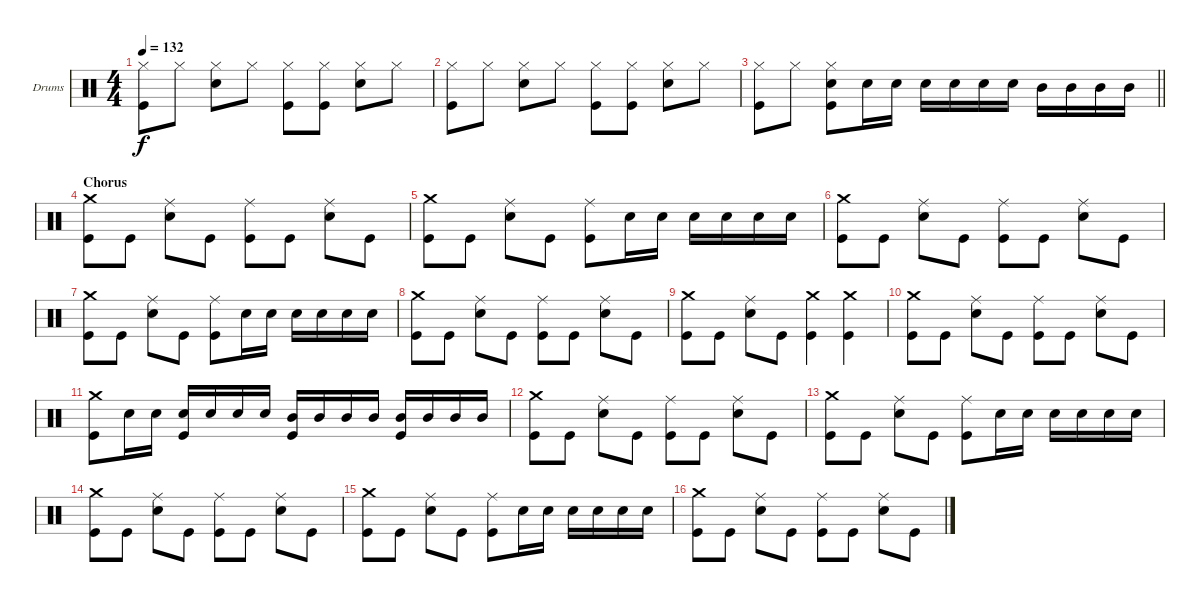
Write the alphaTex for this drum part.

\bracketExtendMode groupsimilarinstruments
\firstSystemTrackNameOrientation horizontal
\otherSystemsTrackNameOrientation horizontal
\track ("Drums" "Drums") {instrument percussion}
\staff {score}
\articulation defaults
\ts (4 4)
\tempo 132
\clef neutral
\ks c
("Hi-Hat (closed)" "Kick (hit)").8{dy f} "Hi-Hat (closed)".8 ("Hi-Hat (closed)" "Snare (hit) 2").8 "Hi-Hat (closed)".8 ("Hi-Hat (closed)" "Kick (hit)").8 ("Hi-Hat (closed)" "Kick (hit)").8 ("Hi-Hat (closed)" "Snare (hit) 2").8 "Hi-Hat (closed)".8 |
("Hi-Hat (closed)" "Kick (hit)").8 "Hi-Hat (closed)".8 ("Hi-Hat (closed)" "Snare (hit) 2").8 "Hi-Hat (closed)".8 ("Hi-Hat (closed)" "Kick (hit)").8 ("Hi-Hat (closed)" "Kick (hit)").8 ("Hi-Hat (closed)" "Snare (hit) 2").8 "Hi-Hat (closed)".8 |
\barLineRight lightlight
("Hi-Hat (closed)" "Kick (hit)").8 "Hi-Hat (closed)".8 ("Hi-Hat (closed)" "Snare (hit) 2" "Kick (hit)").8 "Snare (hit) 2".16 "Snare (hit) 2".16 "Snare (hit) 2".16 "Snare (hit) 2".16 "Snare (hit) 2".16 "Snare (hit) 2".16 "Mid Tom (hit)".16 "Mid Tom (hit)".16 "Mid Tom (hit)".16 "Mid Tom (hit)".16 |
\section ("" "Chorus")
("Crash medium (hit)" "Kick (hit)").8 "Kick (hit)".8 ("Ride (middle)" "Snare (hit) 2").8 "Kick (hit)".8 ("Ride (middle)" "Kick (hit)").8 "Kick (hit)".8 ("Ride (middle)" "Snare (hit) 2").8 "Kick (hit)".8 |
("Crash medium (hit)" "Kick (hit)").8 "Kick (hit)".8 ("Ride (middle)" "Snare (hit) 2").8 "Kick (hit)".8 ("Ride (middle)" "Kick (hit)").8 "Snare (hit) 2".16 "Snare (hit) 2".16 "Snare (hit) 2".16 "Snare (hit) 2".16 "Snare (hit) 2".16 "Snare (hit) 2".16 |
("Crash medium (hit)" "Kick (hit)").8 "Kick (hit)".8 ("Ride (middle)" "Snare (hit) 2").8 "Kick (hit)".8 ("Ride (middle)" "Kick (hit)").8 "Kick (hit)".8 ("Ride (middle)" "Snare (hit) 2").8 "Kick (hit)".8 |
("Crash medium (hit)" "Kick (hit)").8 "Kick (hit)".8 ("Ride (middle)" "Snare (hit) 2").8 "Kick (hit)".8 ("Ride (middle)" "Kick (hit)").8 "Snare (hit) 2".16 "Snare (hit) 2".16 "Snare (hit) 2".16 "Snare (hit) 2".16 "Snare (hit) 2".16 "Snare (hit) 2".16 |
("Crash medium (hit)" "Kick (hit)").8 "Kick (hit)".8 ("Ride (middle)" "Snare (hit) 2").8 "Kick (hit)".8 ("Ride (middle)" "Kick (hit)").8 "Kick (hit)".8 ("Ride (middle)" "Snare (hit) 2").8 "Kick (hit)".8 |
("Crash medium (hit)" "Kick (hit)").8 "Kick (hit)".8 ("Ride (middle)" "Snare (hit) 2").8 "Kick (hit)".8 ("Crash medium (hit)" "Kick (hit)").4 ("Crash medium (hit)" "Kick (hit)").4 |
("Crash medium (hit)" "Kick (hit)").8 "Kick (hit)".8 ("Ride (middle)" "Snare (hit) 2").8 "Kick (hit)".8 ("Ride (middle)" "Kick (hit)").8 "Kick (hit)".8 ("Ride (middle)" "Snare (hit) 2").8 "Kick (hit)".8 |
("Crash medium (hit)" "Kick (hit)").8 "Snare (hit) 2".16 "Snare (hit) 2".16 ("Snare (hit) 2" "Kick (hit)").16 "Snare (hit) 2".16 "Snare (hit) 2".16 "Snare (hit) 2".16 ("Mid Tom (hit)" "Kick (hit)").16 "Mid Tom (hit)".16 "Mid Tom (hit)".16 "Mid Tom (hit)".16 ("Mid Tom (hit)" "Kick (hit)").16 "Mid Tom (hit)".16 "Mid Tom (hit)".16 "Mid Tom (hit)".16 |
("Crash medium (hit)" "Kick (hit)").8 "Kick (hit)".8 ("Ride (middle)" "Snare (hit) 2").8 "Kick (hit)".8 ("Ride (middle)" "Kick (hit)").8 "Kick (hit)".8 ("Ride (middle)" "Snare (hit) 2").8 "Kick (hit)".8 |
("Crash medium (hit)" "Kick (hit)").8 "Kick (hit)".8 ("Ride (middle)" "Snare (hit) 2").8 "Kick (hit)".8 ("Ride (middle)" "Kick (hit)").8 "Snare (hit) 2".16 "Snare (hit) 2".16 "Snare (hit) 2".16 "Snare (hit) 2".16 "Snare (hit) 2".16 "Snare (hit) 2".16 |
("Crash medium (hit)" "Kick (hit)").8 "Kick (hit)".8 ("Ride (middle)" "Snare (hit) 2").8 "Kick (hit)".8 ("Ride (middle)" "Kick (hit)").8 "Kick (hit)".8 ("Ride (middle)" "Snare (hit) 2").8 "Kick (hit)".8 |
("Crash medium (hit)" "Kick (hit)").8 "Kick (hit)".8 ("Ride (middle)" "Snare (hit) 2").8 "Kick (hit)".8 ("Ride (middle)" "Kick (hit)").8 "Snare (hit) 2".16 "Snare (hit) 2".16 "Snare (hit) 2".16 "Snare (hit) 2".16 "Snare (hit) 2".16 "Snare (hit) 2".16 |
("Crash medium (hit)" "Kick (hit)").8 "Kick (hit)".8 ("Ride (middle)" "Snare (hit) 2").8 "Kick (hit)".8 ("Ride (middle)" "Kick (hit)").8 "Kick (hit)".8 ("Ride (middle)" "Snare (hit) 2").8 "Kick (hit)".8
